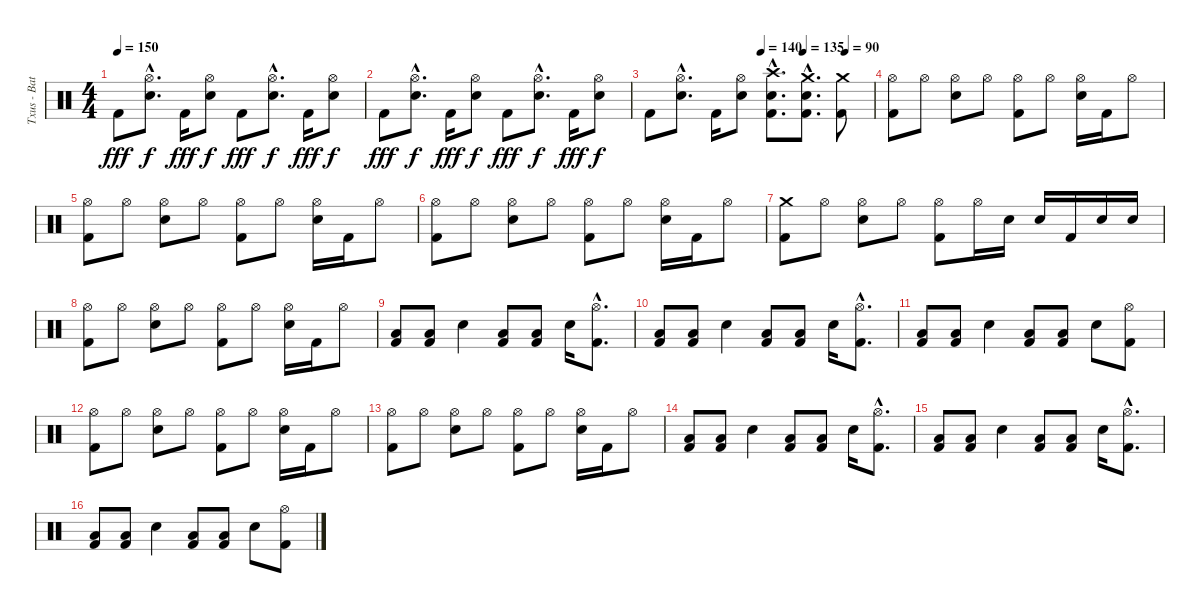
\track ("Txus - Batería" "Txus - Bat") {instrument percussion}
\staff {score}
\articulation defaults
\ts (4 4)
\tempo 150
\clef neutral
\ks c "Kick (hit) 2".8{dy fff}
("Hi-Hat (open)"{hac} "Electric Snare (hit)"{hac}).8{d dy f} "Kick (hit) 2".16{dy fff} ("Hi-Hat (open)" "Electric Snare (hit)").8{dy f} "Kick (hit) 2".8{dy fff} ("Hi-Hat (open)"{hac} "Electric Snare (hit)"{hac}).8{d dy f} "Kick (hit) 2".16{dy fff} ("Hi-Hat (open)" "Electric Snare (hit)").8{dy f} |
"Kick (hit) 2".8{dy fff} ("Hi-Hat (open)"{hac} "Electric Snare (hit)"{hac}).8{d dy f} "Kick (hit) 2".16{dy fff} ("Hi-Hat (open)" "Electric Snare (hit)").8{dy f} "Kick (hit) 2".8{dy fff} ("Hi-Hat (open)"{hac} "Electric Snare (hit)"{hac}).8{d dy f} "Kick (hit) 2".16{dy fff} ("Hi-Hat (open)" "Electric Snare (hit)").8{dy f} |
\tempo (140 0.5)
\tempo (135 0.6875)
\tempo (90 0.875)
"Kick (hit) 2".8 ("Hi-Hat (open)"{hac} "Electric Snare (hit)"{hac}).8{d} "Kick (hit) 2".16 ("Hi-Hat (open)" "Electric Snare (hit)").8 ("Crash high (hit)"{hac} "Electric Snare (hit)"{hac} "Kick (hit) 2"{hac}).8{d} ("Crash medium (hit)"{hac} "Electric Snare (hit)"{hac} "Kick (hit) 2"{hac}).8{d} ("Crash medium (hit)" "Kick (hit) 2").8 |
("Hi-Hat (open)" "Kick (hit) 2").8 "Hi-Hat (open)".8 ("Hi-Hat (open)" "Electric Snare (hit)").8 "Hi-Hat (open)".8 ("Hi-Hat (open)" "Kick (hit) 2").8 "Hi-Hat (open)".8 ("Hi-Hat (open)" "Electric Snare (hit)").16 "Kick (hit) 2".16 "Hi-Hat (open)".8 |
("Hi-Hat (open)" "Kick (hit) 2").8 "Hi-Hat (open)".8 ("Hi-Hat (open)" "Electric Snare (hit)").8 "Hi-Hat (open)".8 ("Hi-Hat (open)" "Kick (hit) 2").8 "Hi-Hat (open)".8 ("Hi-Hat (open)" "Electric Snare (hit)").16 "Kick (hit) 2".16 "Hi-Hat (open)".8 |
("Hi-Hat (open)" "Kick (hit) 2").8 "Hi-Hat (open)".8 ("Hi-Hat (open)" "Electric Snare (hit)").8 "Hi-Hat (open)".8 ("Hi-Hat (open)" "Kick (hit) 2").8 "Hi-Hat (open)".8 ("Hi-Hat (open)" "Electric Snare (hit)").16 "Kick (hit) 2".16 "Hi-Hat (open)".8 |
("Crash medium (hit)" "Kick (hit) 2").8 "Hi-Hat (open)".8 ("Hi-Hat (open)" "Electric Snare (hit)").8 "Hi-Hat (open)".8 ("Hi-Hat (open)" "Kick (hit) 2").8 "Hi-Hat (open)".16 "Electric Snare (hit)".16 "Electric Snare (hit)".16 "Kick (hit) 2".16 "Electric Snare (hit)".16 "Electric Snare (hit)".16 |
("Hi-Hat (open)" "Kick (hit) 2").8 "Hi-Hat (open)".8 ("Hi-Hat (open)" "Electric Snare (hit)").8 "Hi-Hat (open)".8 ("Hi-Hat (open)" "Kick (hit) 2").8 "Hi-Hat (open)".8 ("Hi-Hat (open)" "Electric Snare (hit)").16 "Kick (hit) 2".16 "Hi-Hat (open)".8 |
("Low Floor Tom (hit)" "Kick (hit) 2").8 ("Low Floor Tom (hit)" "Kick (hit) 2").8 "Electric Snare (hit)".4 ("Low Floor Tom (hit)" "Kick (hit) 2").8 ("Low Floor Tom (hit)" "Kick (hit) 2").8 "Electric Snare (hit)".16 ("Hi-Hat (open)"{hac} "Kick (hit) 2"{hac}).8{d} |
("Low Floor Tom (hit)" "Kick (hit) 2").8 ("Low Floor Tom (hit)" "Kick (hit) 2").8 "Electric Snare (hit)".4 ("Low Floor Tom (hit)" "Kick (hit) 2").8 ("Low Floor Tom (hit)" "Kick (hit) 2").8 "Electric Snare (hit)".16 ("Hi-Hat (open)"{hac} "Kick (hit) 2"{hac}).8{d} |
("Low Floor Tom (hit)" "Kick (hit) 2").8 ("Low Floor Tom (hit)" "Kick (hit) 2").8 "Electric Snare (hit)".4 ("Low Floor Tom (hit)" "Kick (hit) 2").8 ("Low Floor Tom (hit)" "Kick (hit) 2").8 "Electric Snare (hit)".8 ("Hi-Hat (open)" "Kick (hit) 2").8 |
("Hi-Hat (open)" "Kick (hit) 2").8 "Hi-Hat (open)".8 ("Hi-Hat (open)" "Electric Snare (hit)").8 "Hi-Hat (open)".8 ("Hi-Hat (open)" "Kick (hit) 2").8 "Hi-Hat (open)".8 ("Hi-Hat (open)" "Electric Snare (hit)").16 "Kick (hit) 2".16 "Hi-Hat (open)".8 |
("Hi-Hat (open)" "Kick (hit) 2").8 "Hi-Hat (open)".8 ("Hi-Hat (open)" "Electric Snare (hit)").8 "Hi-Hat (open)".8 ("Hi-Hat (open)" "Kick (hit) 2").8 "Hi-Hat (open)".8 ("Hi-Hat (open)" "Electric Snare (hit)").16 "Kick (hit) 2".16 "Hi-Hat (open)".8 |
("Low Floor Tom (hit)" "Kick (hit) 2").8 ("Low Floor Tom (hit)" "Kick (hit) 2").8 "Electric Snare (hit)".4 ("Low Floor Tom (hit)" "Kick (hit) 2").8 ("Low Floor Tom (hit)" "Kick (hit) 2").8 "Electric Snare (hit)".16 ("Hi-Hat (open)"{hac} "Kick (hit) 2"{hac}).8{d} |
("Low Floor Tom (hit)" "Kick (hit) 2").8 ("Low Floor Tom (hit)" "Kick (hit) 2").8 "Electric Snare (hit)".4 ("Low Floor Tom (hit)" "Kick (hit) 2").8 ("Low Floor Tom (hit)" "Kick (hit) 2").8 "Electric Snare (hit)".16 ("Hi-Hat (open)"{hac} "Kick (hit) 2"{hac}).8{d} |
("Low Floor Tom (hit)" "Kick (hit) 2").8 ("Low Floor Tom (hit)" "Kick (hit) 2").8 "Electric Snare (hit)".4 ("Low Floor Tom (hit)" "Kick (hit) 2").8 ("Low Floor Tom (hit)" "Kick (hit) 2").8 "Electric Snare (hit)".8 ("Hi-Hat (open)" "Kick (hit) 2").8
